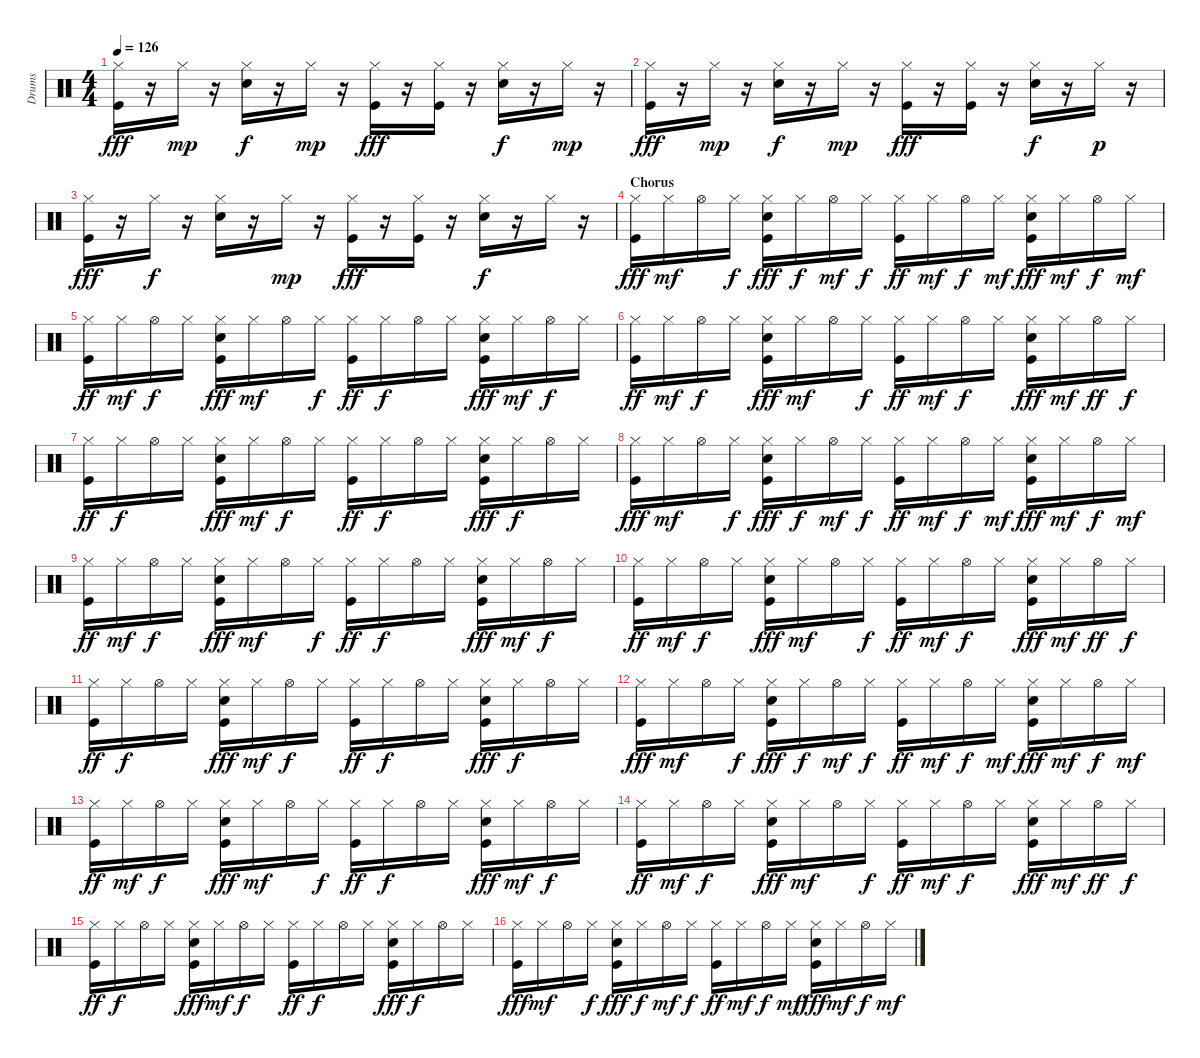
\track ("Drums" "Drums") {instrument percussion}
\staff {score}
\articulation defaults
\ts (4 4)
\tempo 126
\clef neutral
\ks c
("Kick (hit)" "Hi-Hat (closed)").16{dy fff} r.16 "Hi-Hat (closed)".16{dy mp} r.16 ("Electric Snare (hit)" "Hi-Hat (closed)").16{dy f} r.16 "Hi-Hat (closed)".16{dy mp} r.16 ("Kick (hit)" "Hi-Hat (closed)").16{dy fff} r.16 ("Kick (hit)" "Hi-Hat (closed)").16 r.16 ("Electric Snare (hit)" "Hi-Hat (closed)").16{dy f} r.16 "Hi-Hat (closed)".16{dy mp} r.16 |
("Kick (hit)" "Hi-Hat (closed)").16{dy fff} r.16 "Hi-Hat (closed)".16{dy mp} r.16 ("Electric Snare (hit)" "Hi-Hat (closed)").16{dy f} r.16 "Hi-Hat (closed)".16{dy mp} r.16 ("Kick (hit)" "Hi-Hat (closed)").16{dy fff} r.16 ("Kick (hit)" "Hi-Hat (closed)").16 r.16 ("Electric Snare (hit)" "Hi-Hat (closed)").16{dy f} r.16 "Hi-Hat (closed)".16{dy p} r.16 |
("Kick (hit)" "Hi-Hat (closed)").16{dy fff} r.16 "Hi-Hat (closed)".16{dy f} r.16 ("Electric Snare (hit)" "Hi-Hat (closed)").16 r.16 "Hi-Hat (closed)".16{dy mp} r.16 ("Kick (hit)" "Hi-Hat (closed)").16{dy fff} r.16 ("Kick (hit)" "Hi-Hat (closed)").16 r.16 ("Electric Snare (hit)" "Hi-Hat (closed)").16{dy f} r.16 "Hi-Hat (closed)".16 r.16 |
\section ("" "Chorus")
("Kick (hit)" "Hi-Hat (closed)").16{dy fff} "Hi-Hat (closed)".16{dy mf} "Hi-Hat (open)".16 "Hi-Hat (closed)".16{dy f} ("Kick (hit)" "Electric Snare (hit)" "Hi-Hat (closed)").16{dy fff} "Hi-Hat (closed)".16{dy f} "Hi-Hat (open)".16{dy mf} "Hi-Hat (closed)".16{dy f} ("Kick (hit)" "Hi-Hat (closed)").16{dy ff} "Hi-Hat (closed)".16{dy mf} "Hi-Hat (open)".16{dy f} "Hi-Hat (closed)".16{dy mf} ("Kick (hit)" "Electric Snare (hit)" "Hi-Hat (closed)").16{dy fff} "Hi-Hat (closed)".16{dy mf} "Hi-Hat (open)".16{dy f} "Hi-Hat (closed)".16{dy mf} |
("Kick (hit)" "Hi-Hat (closed)").16{dy ff} "Hi-Hat (closed)".16{dy mf} "Hi-Hat (open)".16{dy f} "Hi-Hat (closed)".16 ("Kick (hit)" "Electric Snare (hit)" "Hi-Hat (closed)").16{dy fff} "Hi-Hat (closed)".16{dy mf} "Hi-Hat (open)".16 "Hi-Hat (closed)".16{dy f} ("Kick (hit)" "Hi-Hat (closed)").16{dy ff} "Hi-Hat (closed)".16{dy f} "Hi-Hat (open)".16 "Hi-Hat (closed)".16 ("Kick (hit)" "Electric Snare (hit)" "Hi-Hat (closed)").16{dy fff} "Hi-Hat (closed)".16{dy mf} "Hi-Hat (open)".16{dy f} "Hi-Hat (closed)".16 |
("Kick (hit)" "Hi-Hat (closed)").16{dy ff} "Hi-Hat (closed)".16{dy mf} "Hi-Hat (open)".16{dy f} "Hi-Hat (closed)".16 ("Kick (hit)" "Electric Snare (hit)" "Hi-Hat (closed)").16{dy fff} "Hi-Hat (closed)".16{dy mf} "Hi-Hat (open)".16 "Hi-Hat (closed)".16{dy f} ("Kick (hit)" "Hi-Hat (closed)").16{dy ff} "Hi-Hat (closed)".16{dy mf} "Hi-Hat (open)".16{dy f} "Hi-Hat (closed)".16 ("Kick (hit)" "Electric Snare (hit)" "Hi-Hat (closed)").16{dy fff} "Hi-Hat (closed)".16{dy mf} "Hi-Hat (open)".16{dy ff} "Hi-Hat (closed)".16{dy f} |
("Kick (hit)" "Hi-Hat (closed)").16{dy ff} "Hi-Hat (closed)".16{dy f} "Hi-Hat (open)".16 "Hi-Hat (closed)".16 ("Kick (hit)" "Electric Snare (hit)" "Hi-Hat (closed)").16{dy fff} "Hi-Hat (closed)".16{dy mf} "Hi-Hat (open)".16{dy f} "Hi-Hat (closed)".16 ("Kick (hit)" "Hi-Hat (closed)").16{dy ff} "Hi-Hat (closed)".16{dy f} "Hi-Hat (open)".16 "Hi-Hat (closed)".16 ("Kick (hit)" "Electric Snare (hit)" "Hi-Hat (closed)").16{dy fff} "Hi-Hat (closed)".16{dy f} "Hi-Hat (open)".16 "Hi-Hat (closed)".16 |
("Kick (hit)" "Hi-Hat (closed)").16{dy fff} "Hi-Hat (closed)".16{dy mf} "Hi-Hat (open)".16 "Hi-Hat (closed)".16{dy f} ("Kick (hit)" "Electric Snare (hit)" "Hi-Hat (closed)").16{dy fff} "Hi-Hat (closed)".16{dy f} "Hi-Hat (open)".16{dy mf} "Hi-Hat (closed)".16{dy f} ("Kick (hit)" "Hi-Hat (closed)").16{dy ff} "Hi-Hat (closed)".16{dy mf} "Hi-Hat (open)".16{dy f} "Hi-Hat (closed)".16{dy mf} ("Kick (hit)" "Electric Snare (hit)" "Hi-Hat (closed)").16{dy fff} "Hi-Hat (closed)".16{dy mf} "Hi-Hat (open)".16{dy f} "Hi-Hat (closed)".16{dy mf} |
("Kick (hit)" "Hi-Hat (closed)").16{dy ff} "Hi-Hat (closed)".16{dy mf} "Hi-Hat (open)".16{dy f} "Hi-Hat (closed)".16 ("Kick (hit)" "Electric Snare (hit)" "Hi-Hat (closed)").16{dy fff} "Hi-Hat (closed)".16{dy mf} "Hi-Hat (open)".16 "Hi-Hat (closed)".16{dy f} ("Kick (hit)" "Hi-Hat (closed)").16{dy ff} "Hi-Hat (closed)".16{dy f} "Hi-Hat (open)".16 "Hi-Hat (closed)".16 ("Kick (hit)" "Electric Snare (hit)" "Hi-Hat (closed)").16{dy fff} "Hi-Hat (closed)".16{dy mf} "Hi-Hat (open)".16{dy f} "Hi-Hat (closed)".16 |
("Kick (hit)" "Hi-Hat (closed)").16{dy ff} "Hi-Hat (closed)".16{dy mf} "Hi-Hat (open)".16{dy f} "Hi-Hat (closed)".16 ("Kick (hit)" "Electric Snare (hit)" "Hi-Hat (closed)").16{dy fff} "Hi-Hat (closed)".16{dy mf} "Hi-Hat (open)".16 "Hi-Hat (closed)".16{dy f} ("Kick (hit)" "Hi-Hat (closed)").16{dy ff} "Hi-Hat (closed)".16{dy mf} "Hi-Hat (open)".16{dy f} "Hi-Hat (closed)".16 ("Kick (hit)" "Electric Snare (hit)" "Hi-Hat (closed)").16{dy fff} "Hi-Hat (closed)".16{dy mf} "Hi-Hat (open)".16{dy ff} "Hi-Hat (closed)".16{dy f} |
("Kick (hit)" "Hi-Hat (closed)").16{dy ff} "Hi-Hat (closed)".16{dy f} "Hi-Hat (open)".16 "Hi-Hat (closed)".16 ("Kick (hit)" "Electric Snare (hit)" "Hi-Hat (closed)").16{dy fff} "Hi-Hat (closed)".16{dy mf} "Hi-Hat (open)".16{dy f} "Hi-Hat (closed)".16 ("Kick (hit)" "Hi-Hat (closed)").16{dy ff} "Hi-Hat (closed)".16{dy f} "Hi-Hat (open)".16 "Hi-Hat (closed)".16 ("Kick (hit)" "Electric Snare (hit)" "Hi-Hat (closed)").16{dy fff} "Hi-Hat (closed)".16{dy f} "Hi-Hat (open)".16 "Hi-Hat (closed)".16 |
("Kick (hit)" "Hi-Hat (closed)").16{dy fff} "Hi-Hat (closed)".16{dy mf} "Hi-Hat (open)".16 "Hi-Hat (closed)".16{dy f} ("Kick (hit)" "Electric Snare (hit)" "Hi-Hat (closed)").16{dy fff} "Hi-Hat (closed)".16{dy f} "Hi-Hat (open)".16{dy mf} "Hi-Hat (closed)".16{dy f} ("Kick (hit)" "Hi-Hat (closed)").16{dy ff} "Hi-Hat (closed)".16{dy mf} "Hi-Hat (open)".16{dy f} "Hi-Hat (closed)".16{dy mf} ("Kick (hit)" "Electric Snare (hit)" "Hi-Hat (closed)").16{dy fff} "Hi-Hat (closed)".16{dy mf} "Hi-Hat (open)".16{dy f} "Hi-Hat (closed)".16{dy mf} |
("Kick (hit)" "Hi-Hat (closed)").16{dy ff} "Hi-Hat (closed)".16{dy mf} "Hi-Hat (open)".16{dy f} "Hi-Hat (closed)".16 ("Kick (hit)" "Electric Snare (hit)" "Hi-Hat (closed)").16{dy fff} "Hi-Hat (closed)".16{dy mf} "Hi-Hat (open)".16 "Hi-Hat (closed)".16{dy f} ("Kick (hit)" "Hi-Hat (closed)").16{dy ff} "Hi-Hat (closed)".16{dy f} "Hi-Hat (open)".16 "Hi-Hat (closed)".16 ("Kick (hit)" "Electric Snare (hit)" "Hi-Hat (closed)").16{dy fff} "Hi-Hat (closed)".16{dy mf} "Hi-Hat (open)".16{dy f} "Hi-Hat (closed)".16 |
("Kick (hit)" "Hi-Hat (closed)").16{dy ff} "Hi-Hat (closed)".16{dy mf} "Hi-Hat (open)".16{dy f} "Hi-Hat (closed)".16 ("Kick (hit)" "Electric Snare (hit)" "Hi-Hat (closed)").16{dy fff} "Hi-Hat (closed)".16{dy mf} "Hi-Hat (open)".16 "Hi-Hat (closed)".16{dy f} ("Kick (hit)" "Hi-Hat (closed)").16{dy ff} "Hi-Hat (closed)".16{dy mf} "Hi-Hat (open)".16{dy f} "Hi-Hat (closed)".16 ("Kick (hit)" "Electric Snare (hit)" "Hi-Hat (closed)").16{dy fff} "Hi-Hat (closed)".16{dy mf} "Hi-Hat (open)".16{dy ff} "Hi-Hat (closed)".16{dy f} |
("Kick (hit)" "Hi-Hat (closed)").16{dy ff} "Hi-Hat (closed)".16{dy f} "Hi-Hat (open)".16 "Hi-Hat (closed)".16 ("Kick (hit)" "Electric Snare (hit)" "Hi-Hat (closed)").16{dy fff} "Hi-Hat (closed)".16{dy mf} "Hi-Hat (open)".16{dy f} "Hi-Hat (closed)".16 ("Kick (hit)" "Hi-Hat (closed)").16{dy ff} "Hi-Hat (closed)".16{dy f} "Hi-Hat (open)".16 "Hi-Hat (closed)".16 ("Kick (hit)" "Electric Snare (hit)" "Hi-Hat (closed)").16{dy fff} "Hi-Hat (closed)".16{dy f} "Hi-Hat (open)".16 "Hi-Hat (closed)".16 |
("Kick (hit)" "Hi-Hat (closed)").16{dy fff} "Hi-Hat (closed)".16{dy mf} "Hi-Hat (open)".16 "Hi-Hat (closed)".16{dy f} ("Kick (hit)" "Electric Snare (hit)" "Hi-Hat (closed)").16{dy fff} "Hi-Hat (closed)".16{dy f} "Hi-Hat (open)".16{dy mf} "Hi-Hat (closed)".16{dy f} ("Kick (hit)" "Hi-Hat (closed)").16{dy ff} "Hi-Hat (closed)".16{dy mf} "Hi-Hat (open)".16{dy f} "Hi-Hat (closed)".16{dy mf} ("Kick (hit)" "Electric Snare (hit)" "Hi-Hat (closed)").16{dy fff} "Hi-Hat (closed)".16{dy mf} "Hi-Hat (open)".16{dy f} "Hi-Hat (closed)".16{dy mf}
